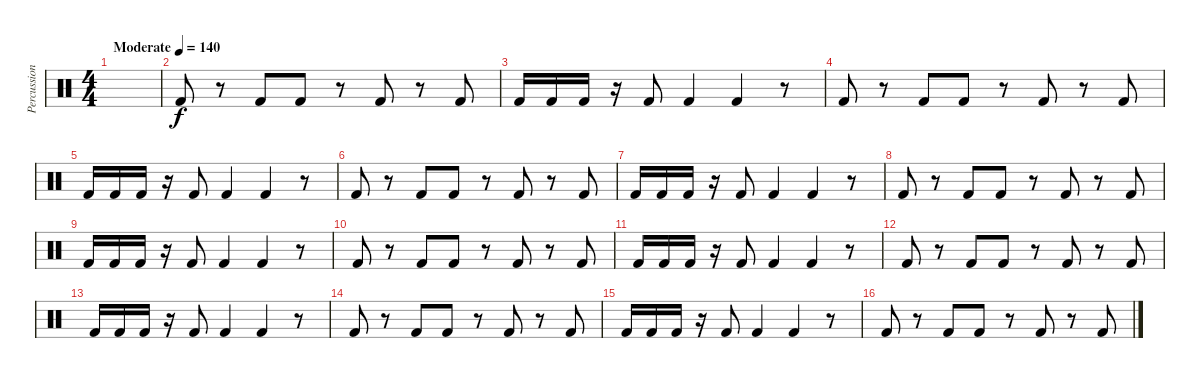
\track ("Percussion" "Percussion") {instrument percussion}
\staff {score}
\articulation defaults
\ts (4 4)
\tempo (140 "Moderate")
\clef neutral
\ks c
|
"Kick (hit) 2".8 r.8 "Kick (hit) 2".8 "Kick (hit) 2".8 r.8 "Kick (hit) 2".8 r.8 "Kick (hit) 2".8 |
"Kick (hit) 2".16 "Kick (hit) 2".16 "Kick (hit) 2".16 r.16 "Kick (hit) 2".8 "Kick (hit) 2".4 "Kick (hit) 2".4 r.8 |
"Kick (hit) 2".8 r.8 "Kick (hit) 2".8 "Kick (hit) 2".8 r.8 "Kick (hit) 2".8 r.8 "Kick (hit) 2".8 |
"Kick (hit) 2".16 "Kick (hit) 2".16 "Kick (hit) 2".16 r.16 "Kick (hit) 2".8 "Kick (hit) 2".4 "Kick (hit) 2".4 r.8 |
"Kick (hit) 2".8 r.8 "Kick (hit) 2".8 "Kick (hit) 2".8 r.8 "Kick (hit) 2".8 r.8 "Kick (hit) 2".8 |
"Kick (hit) 2".16 "Kick (hit) 2".16 "Kick (hit) 2".16 r.16 "Kick (hit) 2".8 "Kick (hit) 2".4 "Kick (hit) 2".4 r.8 |
"Kick (hit) 2".8 r.8 "Kick (hit) 2".8 "Kick (hit) 2".8 r.8 "Kick (hit) 2".8 r.8 "Kick (hit) 2".8 |
"Kick (hit) 2".16 "Kick (hit) 2".16 "Kick (hit) 2".16 r.16 "Kick (hit) 2".8 "Kick (hit) 2".4 "Kick (hit) 2".4 r.8 |
"Kick (hit) 2".8 r.8 "Kick (hit) 2".8 "Kick (hit) 2".8 r.8 "Kick (hit) 2".8 r.8 "Kick (hit) 2".8 |
"Kick (hit) 2".16 "Kick (hit) 2".16 "Kick (hit) 2".16 r.16 "Kick (hit) 2".8 "Kick (hit) 2".4 "Kick (hit) 2".4 r.8 |
"Kick (hit) 2".8 r.8 "Kick (hit) 2".8 "Kick (hit) 2".8 r.8 "Kick (hit) 2".8 r.8 "Kick (hit) 2".8 |
"Kick (hit) 2".16 "Kick (hit) 2".16 "Kick (hit) 2".16 r.16 "Kick (hit) 2".8 "Kick (hit) 2".4 "Kick (hit) 2".4 r.8 |
"Kick (hit) 2".8 r.8 "Kick (hit) 2".8 "Kick (hit) 2".8 r.8 "Kick (hit) 2".8 r.8 "Kick (hit) 2".8 |
"Kick (hit) 2".16 "Kick (hit) 2".16 "Kick (hit) 2".16 r.16 "Kick (hit) 2".8 "Kick (hit) 2".4 "Kick (hit) 2".4 r.8 |
"Kick (hit) 2".8 r.8 "Kick (hit) 2".8 "Kick (hit) 2".8 r.8 "Kick (hit) 2".8 r.8 "Kick (hit) 2".8
